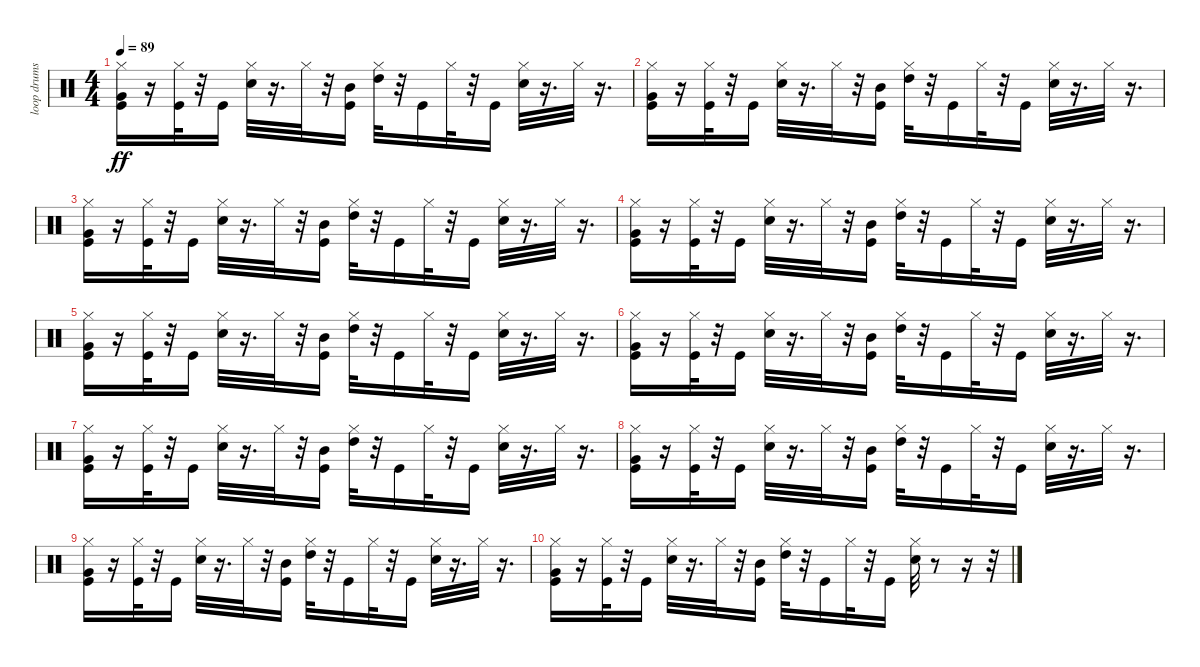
\track ("loop drums" "loop drums") {instrument percussion}
\staff {score}
\articulation defaults
\ts (4 4)
\tempo 89
\clef neutral
\ks c
("Very Low Tom (hit)" "Kick (hit)" "Hi-Hat (closed)").16{dy ff} r.16 ("Kick (hit)" "Hi-Hat (closed)").32 r.32 "Kick (hit)".16 ("Hi-Hat (closed)" "Electric Snare (hit)").32 r.16{d} "Hi-Hat (closed)".32 r.32 ("Kick (hit)" "Mid Tom (hit)").16 ("Hi-Hat (closed)" "High Tom (hit)").32 r.32 "Kick (hit)".16 "Hi-Hat (closed)".32 r.32 "Kick (hit)".16 ("Hi-Hat (closed)" "Electric Snare (hit)").32 r.16{d} "Hi-Hat (closed)".32 r.16{d} |
("Very Low Tom (hit)" "Kick (hit)" "Hi-Hat (closed)").16 r.16 ("Kick (hit)" "Hi-Hat (closed)").32 r.32 "Kick (hit)".16 ("Hi-Hat (closed)" "Electric Snare (hit)").32 r.16{d} "Hi-Hat (closed)".32 r.32 ("Kick (hit)" "Mid Tom (hit)").16 ("Hi-Hat (closed)" "High Tom (hit)").32 r.32 "Kick (hit)".16 "Hi-Hat (closed)".32 r.32 "Kick (hit)".16 ("Hi-Hat (closed)" "Electric Snare (hit)").32 r.16{d} "Hi-Hat (closed)".32 r.16{d} |
("Kick (hit)" "Hi-Hat (closed)" "Very Low Tom (hit)").16 r.16 ("Kick (hit)" "Hi-Hat (closed)").32 r.32 "Kick (hit)".16 ("Hi-Hat (closed)" "Electric Snare (hit)").32 r.16{d} "Hi-Hat (closed)".32 r.32 ("Kick (hit)" "Mid Tom (hit)").16 ("Hi-Hat (closed)" "High Tom (hit)").32 r.32 "Kick (hit)".16 "Hi-Hat (closed)".32 r.32 "Kick (hit)".16 ("Hi-Hat (closed)" "Electric Snare (hit)").32 r.16{d} "Hi-Hat (closed)".32 r.16{d} |
("Very Low Tom (hit)" "Kick (hit)" "Hi-Hat (closed)").16 r.16 ("Kick (hit)" "Hi-Hat (closed)").32 r.32 "Kick (hit)".16 ("Hi-Hat (closed)" "Electric Snare (hit)").32 r.16{d} "Hi-Hat (closed)".32 r.32 ("Kick (hit)" "Mid Tom (hit)").16 ("Hi-Hat (closed)" "High Tom (hit)").32 r.32 "Kick (hit)".16 "Hi-Hat (closed)".32 r.32 "Kick (hit)".16 ("Hi-Hat (closed)" "Electric Snare (hit)").32 r.16{d} "Hi-Hat (closed)".32 r.16{d} |
("Very Low Tom (hit)" "Kick (hit)" "Hi-Hat (closed)").16 r.16 ("Kick (hit)" "Hi-Hat (closed)").32 r.32 "Kick (hit)".16 ("Hi-Hat (closed)" "Electric Snare (hit)").32 r.16{d} "Hi-Hat (closed)".32 r.32 ("Kick (hit)" "Mid Tom (hit)").16 ("Hi-Hat (closed)" "High Tom (hit)").32 r.32 "Kick (hit)".16 "Hi-Hat (closed)".32 r.32 "Kick (hit)".16 ("Hi-Hat (closed)" "Electric Snare (hit)").32 r.16{d} "Hi-Hat (closed)".32 r.16{d} |
("Very Low Tom (hit)" "Kick (hit)" "Hi-Hat (closed)").16 r.16 ("Kick (hit)" "Hi-Hat (closed)").32 r.32 "Kick (hit)".16 ("Hi-Hat (closed)" "Electric Snare (hit)").32 r.16{d} "Hi-Hat (closed)".32 r.32 ("Kick (hit)" "Mid Tom (hit)").16 ("Hi-Hat (closed)" "High Tom (hit)").32 r.32 "Kick (hit)".16 "Hi-Hat (closed)".32 r.32 "Kick (hit)".16 ("Hi-Hat (closed)" "Electric Snare (hit)").32 r.16{d} "Hi-Hat (closed)".32 r.16{d} |
("Kick (hit)" "Hi-Hat (closed)" "Very Low Tom (hit)").16 r.16 ("Kick (hit)" "Hi-Hat (closed)").32 r.32 "Kick (hit)".16 ("Hi-Hat (closed)" "Electric Snare (hit)").32 r.16{d} "Hi-Hat (closed)".32 r.32 ("Kick (hit)" "Mid Tom (hit)").16 ("Hi-Hat (closed)" "High Tom (hit)").32 r.32 "Kick (hit)".16 "Hi-Hat (closed)".32 r.32 "Kick (hit)".16 ("Hi-Hat (closed)" "Electric Snare (hit)").32 r.16{d} "Hi-Hat (closed)".32 r.16{d} |
("Very Low Tom (hit)" "Kick (hit)" "Hi-Hat (closed)").16 r.16 ("Kick (hit)" "Hi-Hat (closed)").32 r.32 "Kick (hit)".16 ("Hi-Hat (closed)" "Electric Snare (hit)").32 r.16{d} "Hi-Hat (closed)".32 r.32 ("Kick (hit)" "Mid Tom (hit)").16 ("Hi-Hat (closed)" "High Tom (hit)").32 r.32 "Kick (hit)".16 "Hi-Hat (closed)".32 r.32 "Kick (hit)".16 ("Hi-Hat (closed)" "Electric Snare (hit)").32 r.16{d} "Hi-Hat (closed)".32 r.16{d} |
("Very Low Tom (hit)" "Kick (hit)" "Hi-Hat (closed)").16 r.16 ("Kick (hit)" "Hi-Hat (closed)").32 r.32 "Kick (hit)".16 ("Hi-Hat (closed)" "Electric Snare (hit)").32 r.16{d} "Hi-Hat (closed)".32 r.32 ("Kick (hit)" "Mid Tom (hit)").16 ("Hi-Hat (closed)" "High Tom (hit)").32 r.32 "Kick (hit)".16 "Hi-Hat (closed)".32 r.32 "Kick (hit)".16 ("Hi-Hat (closed)" "Electric Snare (hit)").32 r.16{d} "Hi-Hat (closed)".32 r.16{d} |
("Kick (hit)" "Hi-Hat (closed)" "Very Low Tom (hit)").16 r.16 ("Kick (hit)" "Hi-Hat (closed)").32 r.32 "Kick (hit)".16 ("Hi-Hat (closed)" "Electric Snare (hit)").32 r.16{d} "Hi-Hat (closed)".32 r.32 ("Kick (hit)" "Mid Tom (hit)").16 ("Hi-Hat (closed)" "High Tom (hit)").32 r.32 "Kick (hit)".16 "Hi-Hat (closed)".32 r.32 "Kick (hit)".16 ("Hi-Hat (closed)" "Electric Snare (hit)").32 r.8 r.16 r.32
